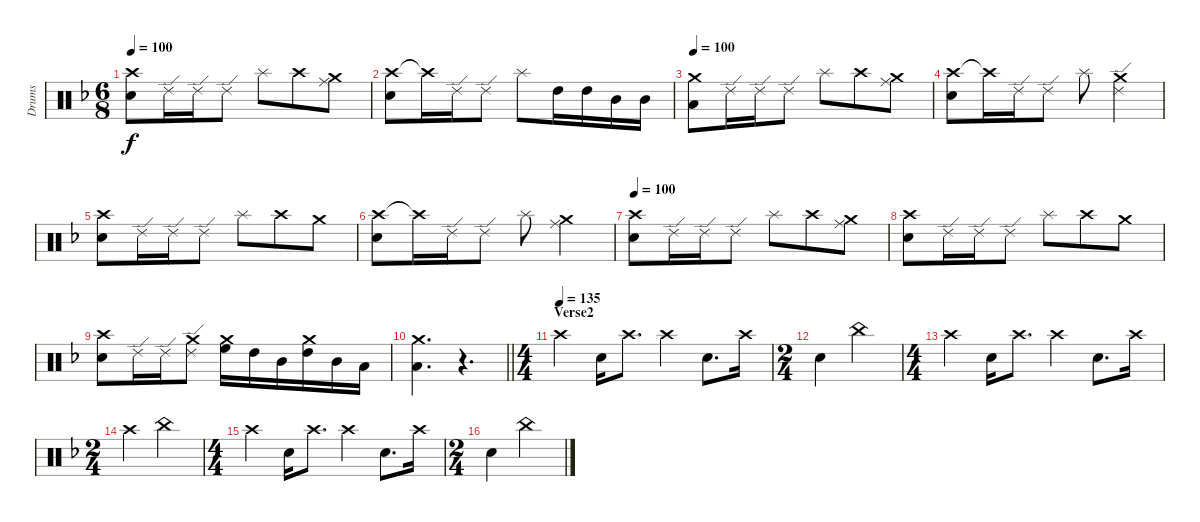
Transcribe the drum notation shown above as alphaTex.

\track ("Drums" "Drums") {instrument percussion}
\staff {score}
\articulation defaults
\ts (6 8)
\tempo 100
\clef neutral
\ks dminor
("Crash high (hit)" "Snare (hit) 2").8{dy f} "Ride (edge) 2".16 "Ride (edge) 2".16 "Ride (edge) 2".8 "Splash (hit)".8 "Crash high (hit)".8 ("Ride (middle)" "Crash medium (hit)").8 |
("Crash high (hit)" "Snare (hit) 2").8 "Crash high (hit)"{t}.16 "Ride (edge) 2".16 "Ride (edge) 2".8 "Splash (hit)".8 "High Tom (hit)".16 "High Tom (hit)".16 "Mid Tom (hit)".16 "Mid Tom (hit)".16 |
\tempo 90
\tempo 100
("Crash medium (hit)" "Low Tom (hit)").8 "Ride (edge) 2".16 "Ride (edge) 2".16 "Ride (edge) 2".8 "Splash (hit)".8 "Crash high (hit)".8 ("Ride (middle)" "Crash medium (hit)").8 |
("Crash high (hit)" "Snare (hit) 2").8 "Crash high (hit)"{t}.16 "Ride (edge) 2".16 "Ride (edge) 2".8 "Splash (hit)".8 ("Ride (edge) 2" "Crash medium (hit)").4 |
("Crash high (hit)" "Snare (hit) 2").8 "Ride (edge) 2".16 "Ride (edge) 2".16 "Ride (edge) 2".8 "Splash (hit)".8 "Crash high (hit)".8 "Crash medium (hit)".8 |
("Crash high (hit)" "Snare (hit) 2").8 "Crash high (hit)"{t}.16 "Ride (edge) 2".16 "Ride (edge) 2".8 "Splash (hit)".8 ("Ride (middle)" "Crash medium (hit)").4 |
\tempo 90
\tempo 100
("Crash high (hit)" "Snare (hit) 2").8 "Ride (edge) 2".16 "Ride (edge) 2".16 "Ride (edge) 2".8 "Splash (hit)".8 "Crash high (hit)".8 ("Ride (middle)" "Crash medium (hit)").8 |
("Crash high (hit)" "Snare (hit) 2").8 "Ride (edge) 2".16 "Ride (edge) 2".16 "Ride (edge) 2".8 "Splash (hit)".8 "Crash high (hit)".8 "Crash medium (hit)".8 |
("Crash high (hit)" "Snare (hit) 2").8 "Ride (edge) 2".16 "Ride (edge) 2".16 ("Ride (edge) 2" "Crash medium (hit)").8 ("Crash medium (hit)" "High Floor Tom (hit)").16 "High Tom (hit)".16 "Mid Tom (hit)".16 ("Crash medium (hit)" "High Tom (hit)").16 "Mid Tom (hit)".16 "Low Tom (hit)".16 |
\barLineRight lightlight
("Crash medium (hit)" "Low Floor Tom (hit)").4{d} r.4{d} |
\ts (4 4)
\section ("" "Verse2")
\tempo (135)
"Crash high (hit)".4 "Snare (hit) 2".16 "Crash high (hit)".8{d} "Crash high (hit)".4 "Snare (hit) 2".8{d} "Crash high (hit)".16 |
\ts (2 4)
"Snare (hit) 2".4 "China (hit)".4 |
\ts (4 4)
"Crash high (hit)".4 "Snare (hit) 2".16 "Crash high (hit)".8{d} "Crash high (hit)".4 "Snare (hit) 2".8{d} "Crash high (hit)".16 |
\ts (2 4)
"Crash high (hit)".4 "China (hit)".4 |
\ts (4 4)
"Crash high (hit)".4 "Snare (hit) 2".16 "Crash high (hit)".8{d} "Crash high (hit)".4 "Snare (hit) 2".8{d} "Crash high (hit)".16 |
\ts (2 4)
"Snare (hit) 2".4 "China (hit)".4
